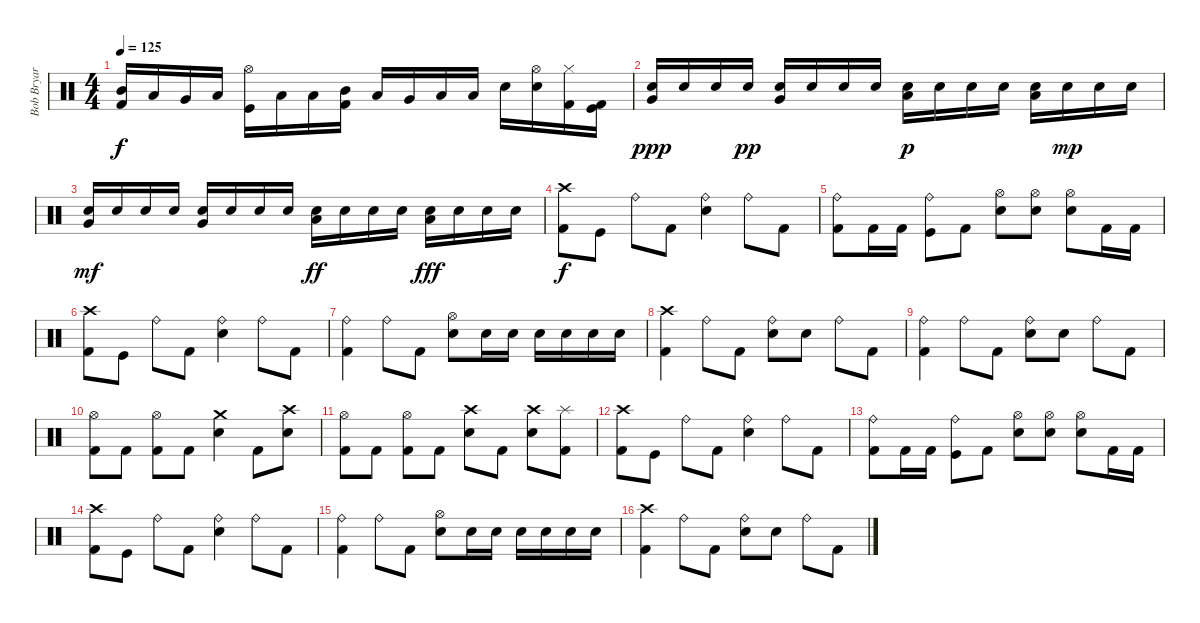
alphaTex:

\track ("Bob Bryar" "Bob Bryar") {instrument percussion}
\staff {score}
\articulation defaults
\ts (4 4)
\tempo 125
\clef neutral
\ks c
("Mid Tom (hit)" "Kick (hit) 2").16{dy f} "Low Tom (hit)".16 "Very Low Tom (hit)".16 "Low Floor Tom (hit)".16 ("Kick (hit)" "Hi-Hat (open)").16 "Low Floor Tom (hit)".16 "Low Floor Tom (hit)".16 ("Mid Tom (hit)" "Kick (hit) 2").16 "Low Tom (hit)".16 "Very Low Tom (hit)".16 "Low Floor Tom (hit)".16 "Low Floor Tom (hit)".16 "Snare (hit) 2".16 ("Snare (hit) 2" "Hi-Hat (open)").16 ("Kick (hit) 2" "Hi-Hat (closed)").16 ("Kick (hit) 2" "Kick (hit)").16 |
("Snare (hit) 2" "Very Low Tom (hit)").16{dy ppp} "Snare (hit) 2".16 "Snare (hit) 2".16 "Snare (hit) 2".16{dy pp} ("Snare (hit) 2" "Very Low Tom (hit)").16 "Snare (hit) 2".16 "Snare (hit) 2".16 "Snare (hit) 2".16 ("Snare (hit) 2" "Low Tom (hit)").16{dy p} "Snare (hit) 2".16 "Snare (hit) 2".16 "Snare (hit) 2".16 ("Snare (hit) 2" "Low Tom (hit)").16 "Snare (hit) 2".16{dy mp} "Snare (hit) 2".16 "Snare (hit) 2".16 |
("Snare (hit) 2" "Very Low Tom (hit)").16{dy mf} "Snare (hit) 2".16 "Snare (hit) 2".16 "Snare (hit) 2".16 ("Snare (hit) 2" "Very Low Tom (hit)").16 "Snare (hit) 2".16 "Snare (hit) 2".16 "Snare (hit) 2".16 ("Snare (hit) 2" "Low Tom (hit)").16{dy ff} "Snare (hit) 2".16 "Snare (hit) 2".16 "Snare (hit) 2".16 ("Snare (hit) 2" "Low Tom (hit)").16{dy fff} "Snare (hit) 2".16 "Snare (hit) 2".16 "Snare (hit) 2".16 |
("Kick (hit) 2" "Crash high (hit)").8{dy f} "Kick (hit)".8 "Ride (bell)".8 "Kick (hit) 2".8 ("Ride (bell)" "Snare (hit) 2").4 "Ride (bell)".8 "Kick (hit) 2".8 |
("Ride (bell)" "Kick (hit) 2").8 "Kick (hit) 2".16 "Kick (hit) 2".16 ("Ride (bell)" "Kick (hit)").8 "Kick (hit) 2".8 ("Hi-Hat (open)" "Snare (hit) 2").8 ("Hi-Hat (open)" "Snare (hit) 2").8 ("Hi-Hat (open)" "Snare (hit) 2").8 "Kick (hit) 2".16 "Kick (hit) 2".16 |
("Kick (hit) 2" "Crash high (hit)").8 "Kick (hit)".8 "Ride (bell)".8 "Kick (hit) 2".8 ("Ride (bell)" "Snare (hit) 2").4 "Ride (bell)".8 "Kick (hit) 2".8 |
("Ride (bell)" "Kick (hit) 2").4 "Ride (bell)".8 "Kick (hit) 2".8 ("Hi-Hat (open)" "Snare (hit) 2").8 "Snare (hit) 2".16 "Snare (hit) 2".16 "Snare (hit) 2".16 "Snare (hit) 2".16 "Snare (hit) 2".16 "Snare (hit) 2".16 |
("Crash high (hit)" "Kick (hit) 2").4 "Ride (bell)".8 "Kick (hit) 2".8 ("Ride (bell)" "Snare (hit) 2").8 "Snare (hit) 2".8 "Ride (bell)".8 "Kick (hit) 2".8 |
("Ride (bell)" "Kick (hit) 2").4 "Ride (bell)".8 "Kick (hit) 2".8 ("Ride (bell)" "Snare (hit) 2").8 "Snare (hit) 2".8 "Ride (bell)".8 "Kick (hit) 2".8 |
("Hi-Hat (open)" "Kick (hit) 2").8 "Kick (hit) 2".8 ("Hi-Hat (open)" "Kick (hit) 2").8 "Kick (hit) 2".8 ("Crash medium (hit)" "Snare (hit) 2").4 "Kick (hit) 2".8 ("Crash high (hit)" "Snare (hit) 2").8 |
("Hi-Hat (open)" "Kick (hit) 2").8 "Kick (hit) 2".8 ("Hi-Hat (open)" "Kick (hit) 2").8 "Kick (hit) 2".8 ("Crash high (hit)" "Snare (hit) 2").8 "Kick (hit) 2".8 ("Crash high (hit)" "Snare (hit) 2").8 ("Splash (hit)" "Kick (hit) 2").8 |
("Kick (hit) 2" "Crash high (hit)").8 "Kick (hit)".8 "Ride (bell)".8 "Kick (hit) 2".8 ("Ride (bell)" "Snare (hit) 2").4 "Ride (bell)".8 "Kick (hit) 2".8 |
("Ride (bell)" "Kick (hit) 2").8 "Kick (hit) 2".16 "Kick (hit) 2".16 ("Ride (bell)" "Kick (hit)").8 "Kick (hit) 2".8 ("Hi-Hat (open)" "Snare (hit) 2").8 ("Hi-Hat (open)" "Snare (hit) 2").8 ("Hi-Hat (open)" "Snare (hit) 2").8 "Kick (hit) 2".16 "Kick (hit) 2".16 |
("Kick (hit) 2" "Crash high (hit)").8 "Kick (hit)".8 "Ride (bell)".8 "Kick (hit) 2".8 ("Ride (bell)" "Snare (hit) 2").4 "Ride (bell)".8 "Kick (hit) 2".8 |
("Ride (bell)" "Kick (hit) 2").4 "Ride (bell)".8 "Kick (hit) 2".8 ("Hi-Hat (open)" "Snare (hit) 2").8 "Snare (hit) 2".16 "Snare (hit) 2".16 "Snare (hit) 2".16 "Snare (hit) 2".16 "Snare (hit) 2".16 "Snare (hit) 2".16 |
("Crash high (hit)" "Kick (hit) 2").4 "Ride (bell)".8 "Kick (hit) 2".8 ("Ride (bell)" "Snare (hit) 2").8 "Snare (hit) 2".8 "Ride (bell)".8 "Kick (hit) 2".8
